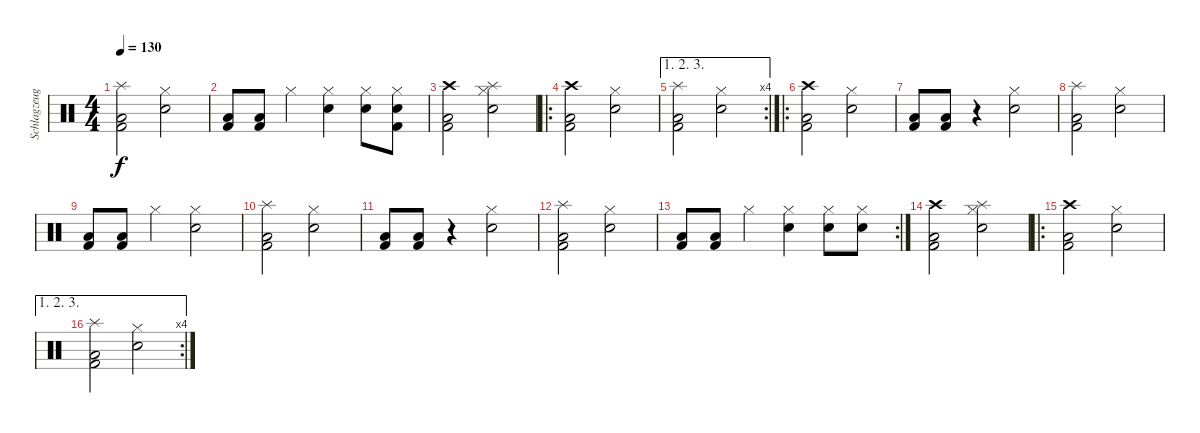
\track ("Schlagzeug" "Schlagzeug") {instrument percussion}
\staff {score}
\articulation defaults
\ts (4 4)
\tempo 130
\clef neutral
\ks c
("Splash (hit)" "Low Floor Tom (hit)" "Kick (hit) 2").2{dy f} ("Snare (hit) 2" "Hi-Hat (closed)").2 |
("Low Floor Tom (hit)" "Kick (hit) 2").8 ("Low Floor Tom (hit)" "Kick (hit) 2").8 "Hi-Hat (closed)".4 ("Snare (hit) 2" "Hi-Hat (closed)").4 ("Snare (hit) 2" "Hi-Hat (closed)").8 ("Kick (hit) 2" "Snare (hit) 2" "Hi-Hat (closed)").8 |
("Crash high (hit)" "Low Floor Tom (hit)" "Kick (hit) 2").2 ("Splash (hit)" "Snare (hit) 2" "Hi-Hat (closed)").2 |
\ro
("Crash high (hit)" "Low Floor Tom (hit)" "Kick (hit) 2").2 ("Snare (hit) 2" "Hi-Hat (closed)").2 |
\ae (1 2 3)
\rc 4
("Splash (hit)" "Low Floor Tom (hit)" "Kick (hit) 2").2 ("Snare (hit) 2" "Hi-Hat (closed)").2 |
\ro
("Crash high (hit)" "Low Floor Tom (hit)" "Kick (hit) 2").2 ("Snare (hit) 2" "Hi-Hat (closed)").2 |
("Low Floor Tom (hit)" "Kick (hit) 2").8 ("Low Floor Tom (hit)" "Kick (hit) 2").8 r.4 ("Snare (hit) 2" "Hi-Hat (closed)").2 |
("Splash (hit)" "Low Floor Tom (hit)" "Kick (hit) 2").2 ("Snare (hit) 2" "Hi-Hat (closed)").2 |
("Low Floor Tom (hit)" "Kick (hit) 2").8 ("Low Floor Tom (hit)" "Kick (hit) 2").8 "Hi-Hat (closed)".4 ("Snare (hit) 2" "Hi-Hat (closed)").2 |
("Splash (hit)" "Low Floor Tom (hit)" "Kick (hit) 2").2 ("Snare (hit) 2" "Hi-Hat (closed)").2 |
("Low Floor Tom (hit)" "Kick (hit) 2").8 ("Low Floor Tom (hit)" "Kick (hit) 2").8 r.4 ("Snare (hit) 2" "Hi-Hat (closed)").2 |
("Splash (hit)" "Low Floor Tom (hit)" "Kick (hit) 2").2 ("Snare (hit) 2" "Hi-Hat (closed)").2 |
\rc 2
("Low Floor Tom (hit)" "Kick (hit) 2").8 ("Low Floor Tom (hit)" "Kick (hit) 2").8 "Hi-Hat (closed)".4 ("Snare (hit) 2" "Hi-Hat (closed)").4 ("Snare (hit) 2" "Hi-Hat (closed)").8 ("Snare (hit) 2" "Hi-Hat (closed)").8 |
("Crash high (hit)" "Low Floor Tom (hit)" "Kick (hit) 2").2 ("Splash (hit)" "Snare (hit) 2" "Hi-Hat (closed)").2 |
\ro
("Crash high (hit)" "Low Floor Tom (hit)" "Kick (hit) 2").2 ("Snare (hit) 2" "Hi-Hat (closed)").2 |
\ae (1 2 3)
\rc 4
("Splash (hit)" "Low Floor Tom (hit)" "Kick (hit) 2").2 ("Snare (hit) 2" "Hi-Hat (closed)").2
